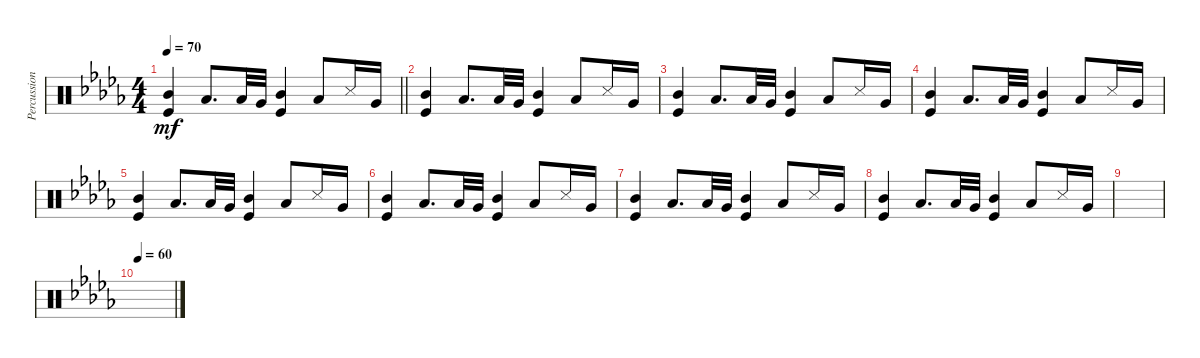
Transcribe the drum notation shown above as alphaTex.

\track ("Percussion (Tainaka Ritsu)" "Percussion") {instrument percussion}
\staff {score}
\articulation defaults
\ts (4 4)
\tempo 70
\clef neutral
\barLineRight lightlight
\ks db
("Mid Tom (hit)" "Kick (hit)").4{dy mf} "Low Tom (hit)".8{d} "Low Floor Tom (hit)".32 "Very Low Tom (hit)".32 ("Mid Tom (hit)" "Kick (hit)").4 "Low Tom (hit)".8 "Snare (side stick) 3".16 "Very Low Tom (hit)".16 |
("Mid Tom (hit)" "Kick (hit)").4 "Low Tom (hit)".8{d} "Low Floor Tom (hit)".32 "Very Low Tom (hit)".32 ("Mid Tom (hit)" "Kick (hit)").4 "Low Tom (hit)".8 "Snare (side stick) 3".16 "Very Low Tom (hit)".16 |
("Mid Tom (hit)" "Kick (hit)").4 "Low Tom (hit)".8{d} "Low Floor Tom (hit)".32 "Very Low Tom (hit)".32 ("Mid Tom (hit)" "Kick (hit)").4 "Low Tom (hit)".8 "Snare (side stick) 3".16 "Very Low Tom (hit)".16 |
("Mid Tom (hit)" "Kick (hit)").4 "Low Tom (hit)".8{d} "Low Floor Tom (hit)".32 "Very Low Tom (hit)".32 ("Mid Tom (hit)" "Kick (hit)").4 "Low Tom (hit)".8 "Snare (side stick) 3".16 "Very Low Tom (hit)".16 |
("Mid Tom (hit)" "Kick (hit)").4 "Low Tom (hit)".8{d} "Low Floor Tom (hit)".32 "Very Low Tom (hit)".32 ("Mid Tom (hit)" "Kick (hit)").4 "Low Tom (hit)".8 "Snare (side stick) 3".16 "Very Low Tom (hit)".16 |
("Mid Tom (hit)" "Kick (hit)").4 "Low Tom (hit)".8{d} "Low Floor Tom (hit)".32 "Very Low Tom (hit)".32 ("Mid Tom (hit)" "Kick (hit)").4 "Low Tom (hit)".8 "Snare (side stick) 3".16 "Very Low Tom (hit)".16 |
("Mid Tom (hit)" "Kick (hit)").4 "Low Tom (hit)".8{d} "Low Floor Tom (hit)".32 "Very Low Tom (hit)".32 ("Mid Tom (hit)" "Kick (hit)").4 "Low Tom (hit)".8 "Snare (side stick) 3".16 "Very Low Tom (hit)".16 |
("Mid Tom (hit)" "Kick (hit)").4 "Low Tom (hit)".8{d} "Low Floor Tom (hit)".32 "Very Low Tom (hit)".32 ("Mid Tom (hit)" "Kick (hit)").4 "Low Tom (hit)".8 "Snare (side stick) 3".16 "Very Low Tom (hit)".16 |
|
\tempo 60
